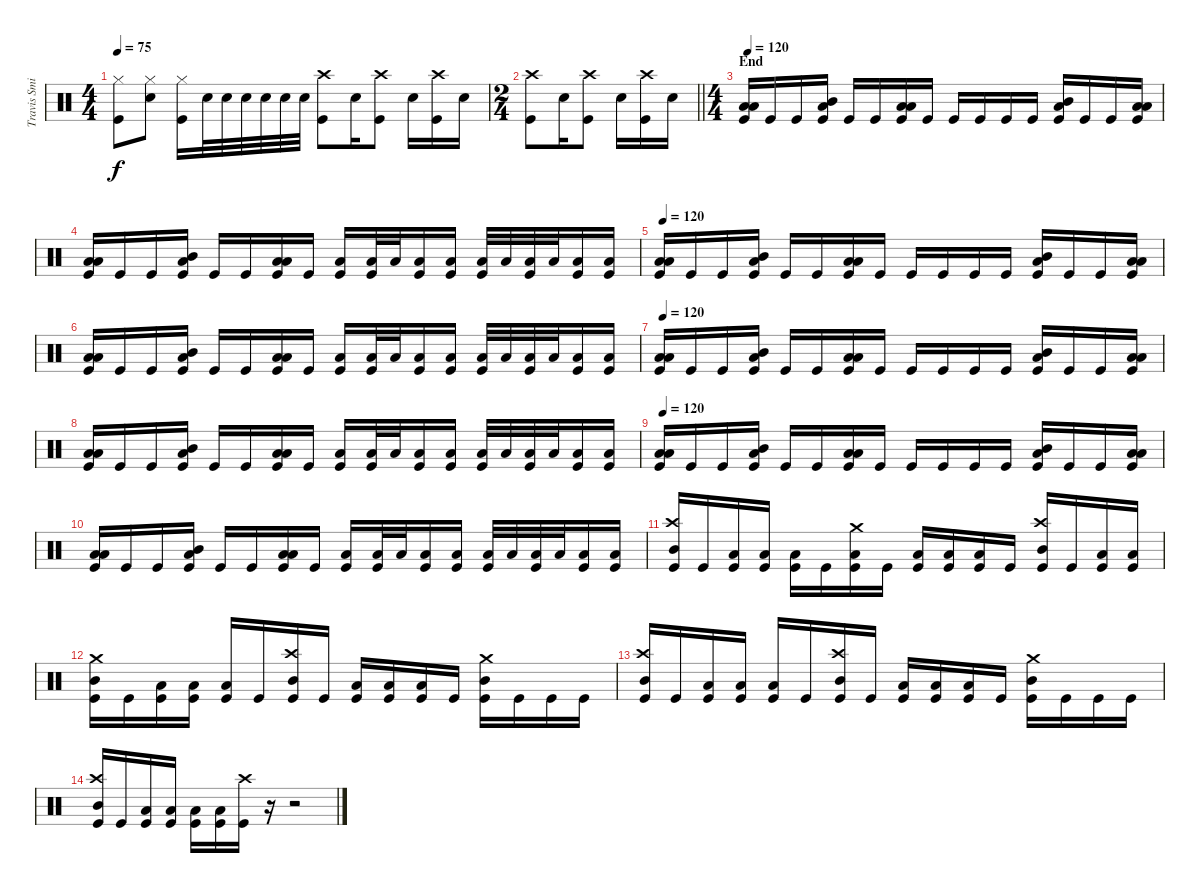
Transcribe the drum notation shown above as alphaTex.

\track ("Travis Smith" "Travis Smi") {instrument percussion}
\staff {score}
\articulation defaults
\ts (4 4)
\tempo 75
\clef neutral
\ks c
("Hi-Hat (closed)" "Kick (hit)").8{dy f} ("Hi-Hat (closed)" "Snare (hit) 2").8 ("Hi-Hat (closed)" "Kick (hit)").16 "Snare (hit) 2".32 "Snare (hit) 2".32 "Snare (hit) 2".32 "Snare (hit) 2".32 "Snare (hit) 2".32 "Snare (hit) 2".32 ("Crash high (hit)" "Kick (hit)").8 "Snare (hit) 2".16 ("Crash high (hit)" "Kick (hit)").8 "Snare (hit) 2".16 ("Crash high (hit)" "Kick (hit)").16 "Snare (hit) 2".16 |
\ts (2 4)
\barLineRight lightlight
("Crash high (hit)" "Kick (hit)").8 "Snare (hit) 2".16 ("Crash high (hit)" "Kick (hit)").8 "Snare (hit) 2".16 ("Crash high (hit)" "Kick (hit)").16 "Snare (hit) 2".16 |
\ts (4 4)
\section ("" "End")
\tempo 120
("Low Tom (hit)" "Low Floor Tom (hit)" "Kick (hit)").16 "Kick (hit)".16 "Kick (hit)".16 ("Mid Tom (hit)" "Low Floor Tom (hit)" "Kick (hit)").16 "Kick (hit)".16 "Kick (hit)".16 ("Low Tom (hit)" "Low Floor Tom (hit)" "Kick (hit)").16 "Kick (hit)".16 "Kick (hit)".16 "Kick (hit)".16 "Kick (hit)".16 "Kick (hit)".16 ("Mid Tom (hit)" "Low Floor Tom (hit)" "Kick (hit)").16 "Kick (hit)".16 "Kick (hit)".16 ("Low Tom (hit)" "Low Floor Tom (hit)" "Kick (hit)").16 |
("Low Tom (hit)" "Low Floor Tom (hit)" "Kick (hit)").16 "Kick (hit)".16 "Kick (hit)".16 ("Mid Tom (hit)" "Low Floor Tom (hit)" "Kick (hit)").16 "Kick (hit)".16 "Kick (hit)".16 ("Low Tom (hit)" "Low Floor Tom (hit)" "Kick (hit)").16 "Kick (hit)".16 ("Low Tom (hit)" "Kick (hit)").16 ("Low Tom (hit)" "Kick (hit)").32 "Low Tom (hit)".32 ("Low Tom (hit)" "Kick (hit)").16 ("Low Tom (hit)" "Kick (hit)").16 ("Low Floor Tom (hit)" "Kick (hit)").32 "Low Floor Tom (hit)".32 ("Low Floor Tom (hit)" "Kick (hit)").32 "Low Floor Tom (hit)".32 ("Low Floor Tom (hit)" "Kick (hit)").16 ("Low Floor Tom (hit)" "Kick (hit)").16 |
\tempo 120
("Low Tom (hit)" "Low Floor Tom (hit)" "Kick (hit)").16 "Kick (hit)".16 "Kick (hit)".16 ("Mid Tom (hit)" "Low Floor Tom (hit)" "Kick (hit)").16 "Kick (hit)".16 "Kick (hit)".16 ("Low Tom (hit)" "Low Floor Tom (hit)" "Kick (hit)").16 "Kick (hit)".16 "Kick (hit)".16 "Kick (hit)".16 "Kick (hit)".16 "Kick (hit)".16 ("Mid Tom (hit)" "Low Floor Tom (hit)" "Kick (hit)").16 "Kick (hit)".16 "Kick (hit)".16 ("Low Tom (hit)" "Low Floor Tom (hit)" "Kick (hit)").16 |
("Low Tom (hit)" "Low Floor Tom (hit)" "Kick (hit)").16 "Kick (hit)".16 "Kick (hit)".16 ("Mid Tom (hit)" "Low Floor Tom (hit)" "Kick (hit)").16 "Kick (hit)".16 "Kick (hit)".16 ("Low Tom (hit)" "Low Floor Tom (hit)" "Kick (hit)").16 "Kick (hit)".16 ("Low Tom (hit)" "Kick (hit)").16 ("Low Tom (hit)" "Kick (hit)").32 "Low Tom (hit)".32 ("Low Tom (hit)" "Kick (hit)").16 ("Low Tom (hit)" "Kick (hit)").16 ("Low Floor Tom (hit)" "Kick (hit)").32 "Low Floor Tom (hit)".32 ("Low Floor Tom (hit)" "Kick (hit)").32 "Low Floor Tom (hit)".32 ("Low Floor Tom (hit)" "Kick (hit)").16 ("Low Floor Tom (hit)" "Kick (hit)").16 |
\tempo 120
("Low Tom (hit)" "Low Floor Tom (hit)" "Kick (hit)").16 "Kick (hit)".16 "Kick (hit)".16 ("Mid Tom (hit)" "Low Floor Tom (hit)" "Kick (hit)").16 "Kick (hit)".16 "Kick (hit)".16 ("Low Tom (hit)" "Low Floor Tom (hit)" "Kick (hit)").16 "Kick (hit)".16 "Kick (hit)".16 "Kick (hit)".16 "Kick (hit)".16 "Kick (hit)".16 ("Mid Tom (hit)" "Low Floor Tom (hit)" "Kick (hit)").16 "Kick (hit)".16 "Kick (hit)".16 ("Low Tom (hit)" "Low Floor Tom (hit)" "Kick (hit)").16 |
("Low Tom (hit)" "Low Floor Tom (hit)" "Kick (hit)").16 "Kick (hit)".16 "Kick (hit)".16 ("Mid Tom (hit)" "Low Floor Tom (hit)" "Kick (hit)").16 "Kick (hit)".16 "Kick (hit)".16 ("Low Tom (hit)" "Low Floor Tom (hit)" "Kick (hit)").16 "Kick (hit)".16 ("Low Tom (hit)" "Kick (hit)").16 ("Low Tom (hit)" "Kick (hit)").32 "Low Tom (hit)".32 ("Low Tom (hit)" "Kick (hit)").16 ("Low Tom (hit)" "Kick (hit)").16 ("Low Floor Tom (hit)" "Kick (hit)").32 "Low Floor Tom (hit)".32 ("Low Floor Tom (hit)" "Kick (hit)").32 "Low Floor Tom (hit)".32 ("Low Floor Tom (hit)" "Kick (hit)").16 ("Low Floor Tom (hit)" "Kick (hit)").16 |
\tempo 120
("Low Tom (hit)" "Low Floor Tom (hit)" "Kick (hit)").16 "Kick (hit)".16 "Kick (hit)".16 ("Mid Tom (hit)" "Low Floor Tom (hit)" "Kick (hit)").16 "Kick (hit)".16 "Kick (hit)".16 ("Low Tom (hit)" "Low Floor Tom (hit)" "Kick (hit)").16 "Kick (hit)".16 "Kick (hit)".16 "Kick (hit)".16 "Kick (hit)".16 "Kick (hit)".16 ("Mid Tom (hit)" "Low Floor Tom (hit)" "Kick (hit)").16 "Kick (hit)".16 "Kick (hit)".16 ("Low Tom (hit)" "Low Floor Tom (hit)" "Kick (hit)").16 |
("Low Tom (hit)" "Low Floor Tom (hit)" "Kick (hit)").16 "Kick (hit)".16 "Kick (hit)".16 ("Mid Tom (hit)" "Low Floor Tom (hit)" "Kick (hit)").16 "Kick (hit)".16 "Kick (hit)".16 ("Low Tom (hit)" "Low Floor Tom (hit)" "Kick (hit)").16 "Kick (hit)".16 ("Low Tom (hit)" "Kick (hit)").16 ("Low Tom (hit)" "Kick (hit)").32 "Low Tom (hit)".32 ("Low Tom (hit)" "Kick (hit)").16 ("Low Tom (hit)" "Kick (hit)").16 ("Low Floor Tom (hit)" "Kick (hit)").32 "Low Floor Tom (hit)".32 ("Low Floor Tom (hit)" "Kick (hit)").32 "Low Floor Tom (hit)".32 ("Low Floor Tom (hit)" "Kick (hit)").16 ("Low Floor Tom (hit)" "Kick (hit)").16 |
("Crash high (hit)" "Mid Tom (hit)" "Kick (hit)").16 "Kick (hit)".16 ("Low Tom (hit)" "Kick (hit)").16 ("Low Tom (hit)" "Kick (hit)").16 ("Low Floor Tom (hit)" "Kick (hit)").16 "Kick (hit)".16 ("Crash medium (hit)" "Low Tom (hit)" "Kick (hit)").16 "Kick (hit)".16 ("Low Floor Tom (hit)" "Kick (hit)").16 ("Low Floor Tom (hit)" "Kick (hit)").16 ("Low Floor Tom (hit)" "Kick (hit)").16 "Kick (hit)".16 ("Crash high (hit)" "Mid Tom (hit)" "Kick (hit)").16 "Kick (hit)".16 ("Low Tom (hit)" "Kick (hit)").16 ("Low Tom (hit)" "Kick (hit)").16 |
("Crash medium (hit)" "Mid Tom (hit)" "Kick (hit)").16 "Kick (hit)".16 ("Low Tom (hit)" "Kick (hit)").16 ("Low Tom (hit)" "Kick (hit)").16 ("Low Floor Tom (hit)" "Kick (hit)").16 "Kick (hit)".16 ("Crash high (hit)" "Mid Tom (hit)" "Kick (hit)").16 "Kick (hit)".16 ("Low Floor Tom (hit)" "Kick (hit)").16 ("Low Floor Tom (hit)" "Kick (hit)").16 ("Low Floor Tom (hit)" "Kick (hit)").16 "Kick (hit)".16 ("Crash medium (hit)" "Mid Tom (hit)" "Kick (hit)").16 "Kick (hit)".16 "Kick (hit)".16 "Kick (hit)".16 |
("Crash high (hit)" "Mid Tom (hit)" "Kick (hit)").16 "Kick (hit)".16 ("Low Tom (hit)" "Kick (hit)").16 ("Low Tom (hit)" "Kick (hit)").16 ("Low Floor Tom (hit)" "Kick (hit)").16 "Kick (hit)".16 ("Crash high (hit)" "Mid Tom (hit)" "Kick (hit)").16 "Kick (hit)".16 ("Low Floor Tom (hit)" "Kick (hit)").16 ("Low Floor Tom (hit)" "Kick (hit)").16 ("Low Floor Tom (hit)" "Kick (hit)").16 "Kick (hit)".16 ("Crash medium (hit)" "Mid Tom (hit)" "Kick (hit)").16 "Kick (hit)".16 "Kick (hit)".16 "Kick (hit)".16 |
("Crash high (hit)" "Mid Tom (hit)" "Kick (hit)").16 "Kick (hit)".16 ("Low Tom (hit)" "Kick (hit)").16 ("Low Tom (hit)" "Kick (hit)").16 ("Low Floor Tom (hit)" "Kick (hit)").16 ("Low Floor Tom (hit)" "Kick (hit)").16 ("Crash high (hit)" "Kick (hit)").16 r.16 r.2
